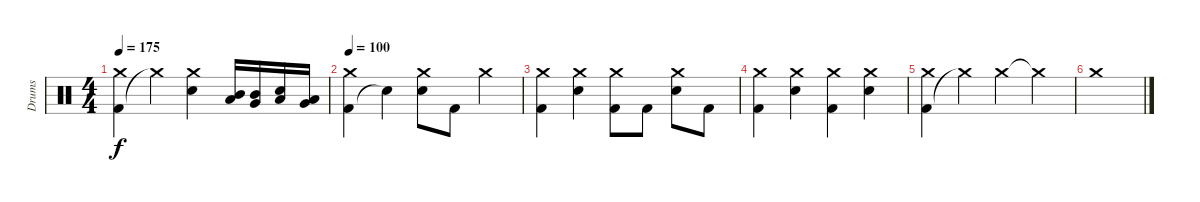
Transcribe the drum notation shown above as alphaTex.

\track ("Drums" "Drums") {instrument percussion}
\staff {score}
\articulation defaults
\ts (4 4)
\tempo 175
\clef neutral
\ks c
("Kick (hit) 2" "Crash medium (hit)").4{dy f} "Crash medium (hit)"{t}.4 ("Electric Snare (hit)" "Crash medium (hit)").4 ("Mid Tom (hit)" "Low Tom (hit)").16 ("Mid Tom (hit)" "Very Low Tom (hit)").16 ("Low Tom (hit)" "Electric Snare (hit)").16 ("Very Low Tom (hit)" "Low Floor Tom (hit)").16 |
\tempo 100
("Kick (hit) 2" "Crash medium (hit)").4 "Snare (hit)"{t}.4 ("Electric Snare (hit)" "Crash medium (hit)").8 "Kick (hit) 2".8 "Crash medium (hit)".4 |
("Kick (hit) 2" "Crash medium (hit)").4 ("Electric Snare (hit)" "Crash medium (hit)").4 ("Kick (hit) 2" "Crash medium (hit)").8 "Kick (hit) 2".8 ("Electric Snare (hit)" "Crash medium (hit)").8 "Kick (hit) 2".8 |
("Kick (hit) 2" "Crash medium (hit)").4 ("Electric Snare (hit)" "Crash medium (hit)").4 ("Kick (hit) 2" "Crash medium (hit)").4 ("Electric Snare (hit)" "Crash medium (hit)").4 |
("Kick (hit) 2" "Crash medium (hit)").4 "Crash medium (hit)"{t}.4 "Crash medium (hit)".4 "Crash medium (hit)"{t}.4 |
"Crash medium (hit)".1
